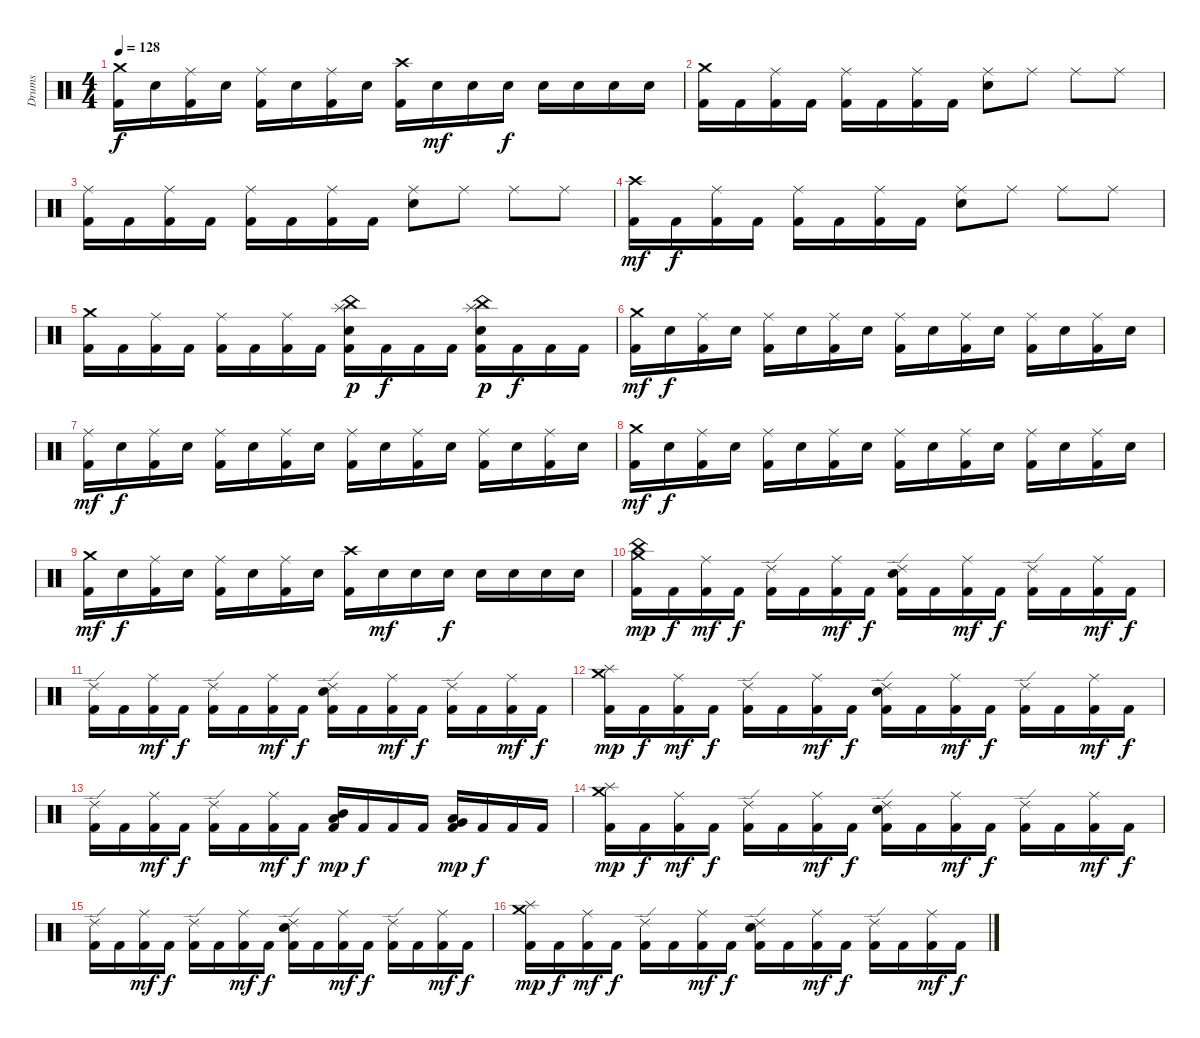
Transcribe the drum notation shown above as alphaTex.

\track ("Drums" "Drums") {instrument percussion}
\staff {score}
\articulation defaults
\ts (4 4)
\tempo 128
\clef neutral
\ks c
("Crash medium (hit)" "Kick (hit) 2").16{dy f} "Electric Snare (hit)".16 ("Ride (middle)" "Kick (hit) 2").16 "Electric Snare (hit)".16 ("Ride (middle)" "Kick (hit) 2").16 "Electric Snare (hit)".16 ("Ride (middle)" "Kick (hit) 2").16 "Electric Snare (hit)".16 ("Crash high (hit)" "Kick (hit) 2").16 "Electric Snare (hit)".16{dy mf} "Electric Snare (hit)".16 "Electric Snare (hit)".16{dy f} "Electric Snare (hit)".16 "Electric Snare (hit)".16 "Electric Snare (hit)".16 "Electric Snare (hit)".16 |
("Crash medium (hit)" "Kick (hit) 2").16 "Kick (hit) 2".16 ("Ride (middle)" "Kick (hit) 2").16 "Kick (hit) 2".16 ("Ride (middle)" "Kick (hit) 2").16 "Kick (hit) 2".16 ("Ride (middle)" "Kick (hit) 2").16 "Kick (hit) 2".16 ("Ride (middle)" "Electric Snare (hit)").8 "Ride (middle)".8 "Ride (middle)".8 "Ride (middle)".8 |
("Ride (middle)" "Kick (hit) 2").16 "Kick (hit) 2".16 ("Ride (middle)" "Kick (hit) 2").16 "Kick (hit) 2".16 ("Ride (middle)" "Kick (hit) 2").16 "Kick (hit) 2".16 ("Ride (middle)" "Kick (hit) 2").16 "Kick (hit) 2".16 ("Ride (middle)" "Electric Snare (hit)").8 "Ride (middle)".8 "Ride (middle)".8 "Ride (middle)".8 |
("Crash high (hit)" "Kick (hit) 2").16{dy mf} "Kick (hit) 2".16{dy f} ("Ride (middle)" "Kick (hit) 2").16 "Kick (hit) 2".16 ("Ride (middle)" "Kick (hit) 2").16 "Kick (hit) 2".16 ("Ride (middle)" "Kick (hit) 2").16 "Kick (hit) 2".16 ("Ride (middle)" "Electric Snare (hit)").8 "Ride (middle)".8 "Ride (middle)".8 "Ride (middle)".8 |
("Crash medium (hit)" "Kick (hit) 2").16 "Kick (hit) 2".16 ("Ride (middle)" "Kick (hit) 2").16 "Kick (hit) 2".16 ("Ride (middle)" "Kick (hit) 2").16 "Kick (hit) 2".16 ("Ride (middle)" "Kick (hit) 2").16 "Kick (hit) 2".16 ("Splash (hit)" "China (hit)" "Electric Snare (hit)" "Kick (hit) 2").16{dy p} "Kick (hit) 2".16{dy f} "Kick (hit) 2".16 "Kick (hit) 2".16 ("Splash (hit)" "China (hit)" "Electric Snare (hit)" "Kick (hit) 2").16{dy p} "Kick (hit) 2".16{dy f} "Kick (hit) 2".16 "Kick (hit) 2".16 |
("Crash medium (hit)" "Kick (hit) 2").16{dy mf} "Electric Snare (hit)".16{dy f} ("Ride (middle)" "Kick (hit) 2").16 "Electric Snare (hit)".16 ("Ride (middle)" "Kick (hit) 2").16 "Electric Snare (hit)".16 ("Ride (middle)" "Kick (hit) 2").16 "Electric Snare (hit)".16 ("Ride (middle)" "Kick (hit) 2").16 "Electric Snare (hit)".16 ("Ride (middle)" "Kick (hit) 2").16 "Electric Snare (hit)".16 ("Ride (middle)" "Kick (hit) 2").16 "Electric Snare (hit)".16 ("Ride (middle)" "Kick (hit) 2").16 "Electric Snare (hit)".16 |
("Ride (middle)" "Kick (hit) 2").16{dy mf} "Electric Snare (hit)".16{dy f} ("Ride (middle)" "Kick (hit) 2").16 "Electric Snare (hit)".16 ("Ride (middle)" "Kick (hit) 2").16 "Electric Snare (hit)".16 ("Ride (middle)" "Kick (hit) 2").16 "Electric Snare (hit)".16 ("Ride (middle)" "Kick (hit) 2").16 "Electric Snare (hit)".16 ("Ride (middle)" "Kick (hit) 2").16 "Electric Snare (hit)".16 ("Ride (middle)" "Kick (hit) 2").16 "Electric Snare (hit)".16 ("Ride (middle)" "Kick (hit) 2").16 "Electric Snare (hit)".16 |
("Crash medium (hit)" "Kick (hit) 2").16{dy mf} "Electric Snare (hit)".16{dy f} ("Ride (middle)" "Kick (hit) 2").16 "Electric Snare (hit)".16 ("Ride (middle)" "Kick (hit) 2").16 "Electric Snare (hit)".16 ("Ride (middle)" "Kick (hit) 2").16 "Electric Snare (hit)".16 ("Ride (middle)" "Kick (hit) 2").16 "Electric Snare (hit)".16 ("Ride (middle)" "Kick (hit) 2").16 "Electric Snare (hit)".16 ("Ride (middle)" "Kick (hit) 2").16 "Electric Snare (hit)".16 ("Ride (middle)" "Kick (hit) 2").16 "Electric Snare (hit)".16 |
("Crash medium (hit)" "Kick (hit) 2").16{dy mf} "Electric Snare (hit)".16{dy f} ("Ride (middle)" "Kick (hit) 2").16 "Electric Snare (hit)".16 ("Ride (middle)" "Kick (hit) 2").16 "Electric Snare (hit)".16 ("Ride (middle)" "Kick (hit) 2").16 "Electric Snare (hit)".16 ("Crash high (hit)" "Kick (hit) 2").16 "Electric Snare (hit)".16{dy mf} "Electric Snare (hit)".16 "Electric Snare (hit)".16{dy f} "Electric Snare (hit)".16 "Electric Snare (hit)".16 "Electric Snare (hit)".16 "Electric Snare (hit)".16 |
("Crash medium (hit)" "China (hit)" "Kick (hit) 2").16{dy mp} "Kick (hit) 2".16{dy f} ("Ride (middle)" "Kick (hit) 2").16{dy mf} "Kick (hit) 2".16{dy f} ("Ride (edge) 2" "Kick (hit) 2").16 "Kick (hit) 2".16 ("Ride (middle)" "Kick (hit) 2").16{dy mf} "Kick (hit) 2".16{dy f} ("Ride (edge) 2" "Electric Snare (hit)" "Kick (hit) 2").16 "Kick (hit) 2".16 ("Ride (middle)" "Kick (hit) 2").16{dy mf} "Kick (hit) 2".16{dy f} ("Ride (edge) 2" "Kick (hit) 2").16 "Kick (hit) 2".16 ("Ride (middle)" "Kick (hit) 2").16{dy mf} "Kick (hit) 2".16{dy f} |
("Ride (edge) 2" "Kick (hit) 2").16 "Kick (hit) 2".16 ("Ride (middle)" "Kick (hit) 2").16{dy mf} "Kick (hit) 2".16{dy f} ("Ride (edge) 2" "Kick (hit) 2").16 "Kick (hit) 2".16 ("Ride (middle)" "Kick (hit) 2").16{dy mf} "Kick (hit) 2".16{dy f} ("Ride (edge) 2" "Electric Snare (hit)" "Kick (hit) 2").16 "Kick (hit) 2".16 ("Ride (middle)" "Kick (hit) 2").16{dy mf} "Kick (hit) 2".16{dy f} ("Ride (edge) 2" "Kick (hit) 2").16 "Kick (hit) 2".16 ("Ride (middle)" "Kick (hit) 2").16{dy mf} "Kick (hit) 2".16{dy f} |
("Crash medium (hit)" "Splash (hit)" "Kick (hit) 2").16{dy mp} "Kick (hit) 2".16{dy f} ("Ride (middle)" "Kick (hit) 2").16{dy mf} "Kick (hit) 2".16{dy f} ("Ride (edge) 2" "Kick (hit) 2").16 "Kick (hit) 2".16 ("Ride (middle)" "Kick (hit) 2").16{dy mf} "Kick (hit) 2".16{dy f} ("Ride (edge) 2" "Electric Snare (hit)" "Kick (hit) 2").16 "Kick (hit) 2".16 ("Ride (middle)" "Kick (hit) 2").16{dy mf} "Kick (hit) 2".16{dy f} ("Ride (edge) 2" "Kick (hit) 2").16 "Kick (hit) 2".16 ("Ride (middle)" "Kick (hit) 2").16{dy mf} "Kick (hit) 2".16{dy f} |
("Ride (edge) 2" "Kick (hit) 2").16 "Kick (hit) 2".16 ("Ride (middle)" "Kick (hit) 2").16{dy mf} "Kick (hit) 2".16{dy f} ("Ride (edge) 2" "Kick (hit) 2").16 "Kick (hit) 2".16 ("Ride (middle)" "Kick (hit) 2").16{dy mf} "Kick (hit) 2".16{dy f} ("Mid Tom (hit)" "Low Tom (hit)" "Kick (hit) 2").16{dy mp} "Kick (hit) 2".16{dy f} "Kick (hit) 2".16 "Kick (hit) 2".16 ("Low Tom (hit)" "Very Low Tom (hit)" "Kick (hit) 2").16{dy mp} "Kick (hit) 2".16{dy f} "Kick (hit) 2".16 "Kick (hit) 2".16 |
("Crash medium (hit)" "Splash (hit)" "Kick (hit) 2").16{dy mp} "Kick (hit) 2".16{dy f} ("Ride (middle)" "Kick (hit) 2").16{dy mf} "Kick (hit) 2".16{dy f} ("Ride (edge) 2" "Kick (hit) 2").16 "Kick (hit) 2".16 ("Ride (middle)" "Kick (hit) 2").16{dy mf} "Kick (hit) 2".16{dy f} ("Ride (edge) 2" "Electric Snare (hit)" "Kick (hit) 2").16 "Kick (hit) 2".16 ("Ride (middle)" "Kick (hit) 2").16{dy mf} "Kick (hit) 2".16{dy f} ("Ride (edge) 2" "Kick (hit) 2").16 "Kick (hit) 2".16 ("Ride (middle)" "Kick (hit) 2").16{dy mf} "Kick (hit) 2".16{dy f} |
("Ride (edge) 2" "Kick (hit) 2").16 "Kick (hit) 2".16 ("Ride (middle)" "Kick (hit) 2").16{dy mf} "Kick (hit) 2".16{dy f} ("Ride (edge) 2" "Kick (hit) 2").16 "Kick (hit) 2".16 ("Ride (middle)" "Kick (hit) 2").16{dy mf} "Kick (hit) 2".16{dy f} ("Ride (edge) 2" "Electric Snare (hit)" "Kick (hit) 2").16 "Kick (hit) 2".16 ("Ride (middle)" "Kick (hit) 2").16{dy mf} "Kick (hit) 2".16{dy f} ("Ride (edge) 2" "Kick (hit) 2").16 "Kick (hit) 2".16 ("Ride (middle)" "Kick (hit) 2").16{dy mf} "Kick (hit) 2".16{dy f} |
("Splash (hit)" "Crash medium (hit)" "Kick (hit) 2").16{dy mp} "Kick (hit) 2".16{dy f} ("Ride (middle)" "Kick (hit) 2").16{dy mf} "Kick (hit) 2".16{dy f} ("Ride (edge) 2" "Kick (hit) 2").16 "Kick (hit) 2".16 ("Ride (middle)" "Kick (hit) 2").16{dy mf} "Kick (hit) 2".16{dy f} ("Ride (edge) 2" "Electric Snare (hit)" "Kick (hit) 2").16 "Kick (hit) 2".16 ("Ride (middle)" "Kick (hit) 2").16{dy mf} "Kick (hit) 2".16{dy f} ("Ride (edge) 2" "Kick (hit) 2").16 "Kick (hit) 2".16 ("Ride (middle)" "Kick (hit) 2").16{dy mf} "Kick (hit) 2".16{dy f}
